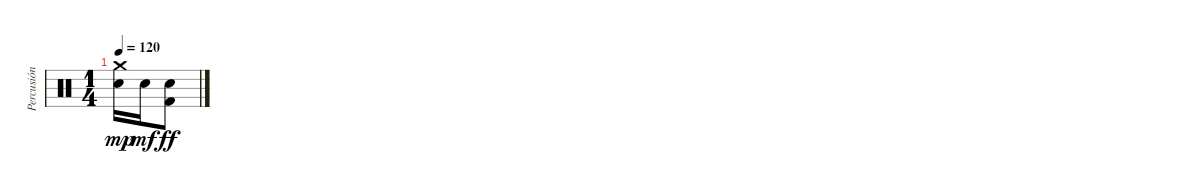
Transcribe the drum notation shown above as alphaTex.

\track ("Percusión" "Percusión") {instrument percussion}
\staff {score}
\articulation defaults
\ts (1 4)
\tempo 120
\clef neutral
\ks c
("Crash medium (hit)" "Electric Snare (hit)").16{dy mp} "Electric Snare (hit)".16{dy mf} ("Electric Snare (hit)" "Kick (hit) 2").8{dy ff}
